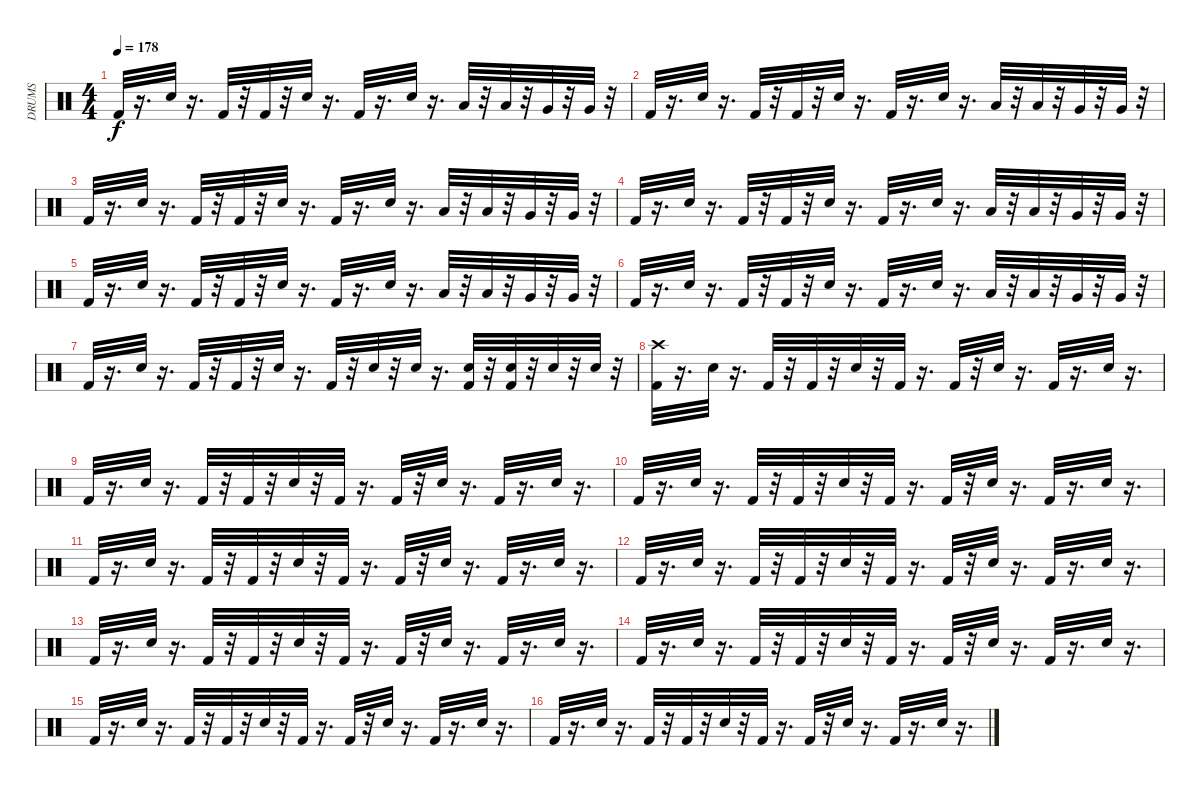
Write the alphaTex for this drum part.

\track ("DRUMS" "DRUMS") {instrument percussion}
\staff {score}
\articulation defaults
\ts (4 4)
\tempo 178
\clef neutral
\ks c "Kick (hit) 2".32{dy f}
r.16{d} "Electric Snare (hit)".32 r.16{d} "Kick (hit) 2".32 r.32 "Kick (hit) 2".32 r.32 "Electric Snare (hit)".32 r.16{d} "Kick (hit) 2".32 r.16{d} "Electric Snare (hit)".32 r.16{d} "Low Tom (hit)".32 r.32 "Low Tom (hit)".32 r.32 "Very Low Tom (hit)".32 r.32 "Very Low Tom (hit)".32 r.32 |
"Kick (hit) 2".32 r.16{d} "Electric Snare (hit)".32 r.16{d} "Kick (hit) 2".32 r.32 "Kick (hit) 2".32 r.32 "Electric Snare (hit)".32 r.16{d} "Kick (hit) 2".32 r.16{d} "Electric Snare (hit)".32 r.16{d} "Low Tom (hit)".32 r.32 "Low Tom (hit)".32 r.32 "Very Low Tom (hit)".32 r.32 "Very Low Tom (hit)".32 r.32 |
"Kick (hit) 2".32 r.16{d} "Electric Snare (hit)".32 r.16{d} "Kick (hit) 2".32 r.32 "Kick (hit) 2".32 r.32 "Electric Snare (hit)".32 r.16{d} "Kick (hit) 2".32 r.16{d} "Electric Snare (hit)".32 r.16{d} "Low Tom (hit)".32 r.32 "Low Tom (hit)".32 r.32 "Very Low Tom (hit)".32 r.32 "Very Low Tom (hit)".32 r.32 |
"Kick (hit) 2".32 r.16{d} "Electric Snare (hit)".32 r.16{d} "Kick (hit) 2".32 r.32 "Kick (hit) 2".32 r.32 "Electric Snare (hit)".32 r.16{d} "Kick (hit) 2".32 r.16{d} "Electric Snare (hit)".32 r.16{d} "Low Tom (hit)".32 r.32 "Low Tom (hit)".32 r.32 "Very Low Tom (hit)".32 r.32 "Very Low Tom (hit)".32 r.32 |
"Kick (hit) 2".32 r.16{d} "Electric Snare (hit)".32 r.16{d} "Kick (hit) 2".32 r.32 "Kick (hit) 2".32 r.32 "Electric Snare (hit)".32 r.16{d} "Kick (hit) 2".32 r.16{d} "Electric Snare (hit)".32 r.16{d} "Low Tom (hit)".32 r.32 "Low Tom (hit)".32 r.32 "Very Low Tom (hit)".32 r.32 "Very Low Tom (hit)".32 r.32 |
"Kick (hit) 2".32 r.16{d} "Electric Snare (hit)".32 r.16{d} "Kick (hit) 2".32 r.32 "Kick (hit) 2".32 r.32 "Electric Snare (hit)".32 r.16{d} "Kick (hit) 2".32 r.16{d} "Electric Snare (hit)".32 r.16{d} "Low Tom (hit)".32 r.32 "Low Tom (hit)".32 r.32 "Very Low Tom (hit)".32 r.32 "Very Low Tom (hit)".32 r.32 |
"Kick (hit) 2".32 r.16{d} "Electric Snare (hit)".32 r.16{d} "Kick (hit) 2".32 r.32 "Kick (hit) 2".32 r.32 "Electric Snare (hit)".32 r.16{d} "Kick (hit) 2".32 r.32 "Electric Snare (hit)".32 r.32 "Electric Snare (hit)".32 r.16{d} ("Kick (hit) 2" "Electric Snare (hit)").32 r.32 ("Kick (hit) 2" "Electric Snare (hit)").32 r.32 "Electric Snare (hit)".32 r.32 "Electric Snare (hit)".32 r.32 |
("Kick (hit) 2" "Crash high (hit)").32 r.16{d} "Electric Snare (hit)".32 r.16{d} "Kick (hit) 2".32 r.32 "Kick (hit) 2".32 r.32 "Electric Snare (hit)".32 r.32 "Kick (hit) 2".32 r.16{d} "Kick (hit) 2".32 r.32 "Electric Snare (hit)".32 r.16{d} "Kick (hit) 2".32 r.16{d} "Electric Snare (hit)".32 r.16{d} |
"Kick (hit) 2".32 r.16{d} "Electric Snare (hit)".32 r.16{d} "Kick (hit) 2".32 r.32 "Kick (hit) 2".32 r.32 "Electric Snare (hit)".32 r.32 "Kick (hit) 2".32 r.16{d} "Kick (hit) 2".32 r.32 "Electric Snare (hit)".32 r.16{d} "Kick (hit) 2".32 r.16{d} "Electric Snare (hit)".32 r.16{d} |
"Kick (hit) 2".32 r.16{d} "Electric Snare (hit)".32 r.16{d} "Kick (hit) 2".32 r.32 "Kick (hit) 2".32 r.32 "Electric Snare (hit)".32 r.32 "Kick (hit) 2".32 r.16{d} "Kick (hit) 2".32 r.32 "Electric Snare (hit)".32 r.16{d} "Kick (hit) 2".32 r.16{d} "Electric Snare (hit)".32 r.16{d} |
"Kick (hit) 2".32 r.16{d} "Electric Snare (hit)".32 r.16{d} "Kick (hit) 2".32 r.32 "Kick (hit) 2".32 r.32 "Electric Snare (hit)".32 r.32 "Kick (hit) 2".32 r.16{d} "Kick (hit) 2".32 r.32 "Electric Snare (hit)".32 r.16{d} "Kick (hit) 2".32 r.16{d} "Electric Snare (hit)".32 r.16{d} |
"Kick (hit) 2".32 r.16{d} "Electric Snare (hit)".32 r.16{d} "Kick (hit) 2".32 r.32 "Kick (hit) 2".32 r.32 "Electric Snare (hit)".32 r.32 "Kick (hit) 2".32 r.16{d} "Kick (hit) 2".32 r.32 "Electric Snare (hit)".32 r.16{d} "Kick (hit) 2".32 r.16{d} "Electric Snare (hit)".32 r.16{d} |
"Kick (hit) 2".32 r.16{d} "Electric Snare (hit)".32 r.16{d} "Kick (hit) 2".32 r.32 "Kick (hit) 2".32 r.32 "Electric Snare (hit)".32 r.32 "Kick (hit) 2".32 r.16{d} "Kick (hit) 2".32 r.32 "Electric Snare (hit)".32 r.16{d} "Kick (hit) 2".32 r.16{d} "Electric Snare (hit)".32 r.16{d} |
"Kick (hit) 2".32 r.16{d} "Electric Snare (hit)".32 r.16{d} "Kick (hit) 2".32 r.32 "Kick (hit) 2".32 r.32 "Electric Snare (hit)".32 r.32 "Kick (hit) 2".32 r.16{d} "Kick (hit) 2".32 r.32 "Electric Snare (hit)".32 r.16{d} "Kick (hit) 2".32 r.16{d} "Electric Snare (hit)".32 r.16{d} |
"Kick (hit) 2".32 r.16{d} "Electric Snare (hit)".32 r.16{d} "Kick (hit) 2".32 r.32 "Kick (hit) 2".32 r.32 "Electric Snare (hit)".32 r.32 "Kick (hit) 2".32 r.16{d} "Kick (hit) 2".32 r.32 "Electric Snare (hit)".32 r.16{d} "Kick (hit) 2".32 r.16{d} "Electric Snare (hit)".32 r.16{d} |
"Kick (hit) 2".32 r.16{d} "Electric Snare (hit)".32 r.16{d} "Kick (hit) 2".32 r.32 "Kick (hit) 2".32 r.32 "Electric Snare (hit)".32 r.32 "Kick (hit) 2".32 r.16{d} "Kick (hit) 2".32 r.32 "Electric Snare (hit)".32 r.16{d} "Kick (hit) 2".32 r.16{d} "Electric Snare (hit)".32 r.16{d}
